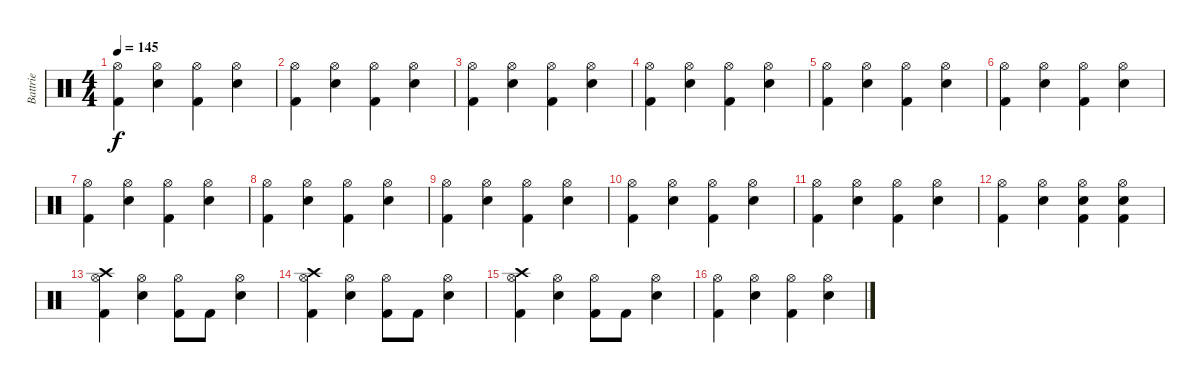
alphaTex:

\track ("Battrie" "Battrie") {instrument percussion}
\staff {score}
\articulation defaults
\ts (4 4)
\tempo 145
\clef neutral
\ks c
("Hi-Hat (open)" "Kick (hit) 2").4{dy f} ("Hi-Hat (open)" "Snare (hit) 2").4 ("Hi-Hat (open)" "Kick (hit) 2").4 ("Snare (hit) 2" "Hi-Hat (open)").4 |
("Hi-Hat (open)" "Kick (hit) 2").4 ("Hi-Hat (open)" "Snare (hit) 2").4 ("Hi-Hat (open)" "Kick (hit) 2").4 ("Snare (hit) 2" "Hi-Hat (open)").4 |
("Hi-Hat (open)" "Kick (hit) 2").4 ("Hi-Hat (open)" "Snare (hit) 2").4 ("Hi-Hat (open)" "Kick (hit) 2").4 ("Snare (hit) 2" "Hi-Hat (open)").4 |
("Hi-Hat (open)" "Kick (hit) 2").4 ("Hi-Hat (open)" "Snare (hit) 2").4 ("Hi-Hat (open)" "Kick (hit) 2").4 ("Snare (hit) 2" "Hi-Hat (open)").4 |
("Hi-Hat (open)" "Kick (hit) 2").4 ("Hi-Hat (open)" "Snare (hit) 2").4 ("Hi-Hat (open)" "Kick (hit) 2").4 ("Snare (hit) 2" "Hi-Hat (open)").4 |
("Hi-Hat (open)" "Kick (hit) 2").4 ("Hi-Hat (open)" "Snare (hit) 2").4 ("Hi-Hat (open)" "Kick (hit) 2").4 ("Snare (hit) 2" "Hi-Hat (open)").4 |
("Hi-Hat (open)" "Kick (hit) 2").4 ("Hi-Hat (open)" "Snare (hit) 2").4 ("Hi-Hat (open)" "Kick (hit) 2").4 ("Snare (hit) 2" "Hi-Hat (open)").4 |
("Hi-Hat (open)" "Kick (hit) 2").4 ("Hi-Hat (open)" "Snare (hit) 2").4 ("Hi-Hat (open)" "Kick (hit) 2").4 ("Snare (hit) 2" "Hi-Hat (open)").4 |
("Hi-Hat (open)" "Kick (hit) 2").4 ("Hi-Hat (open)" "Snare (hit) 2").4 ("Hi-Hat (open)" "Kick (hit) 2").4 ("Snare (hit) 2" "Hi-Hat (open)").4 |
("Hi-Hat (open)" "Kick (hit) 2").4 ("Hi-Hat (open)" "Snare (hit) 2").4 ("Hi-Hat (open)" "Kick (hit) 2").4 ("Snare (hit) 2" "Hi-Hat (open)").4 |
("Hi-Hat (open)" "Kick (hit) 2").4 ("Hi-Hat (open)" "Snare (hit) 2").4 ("Hi-Hat (open)" "Kick (hit) 2").4 ("Snare (hit) 2" "Hi-Hat (open)").4 |
("Hi-Hat (open)" "Kick (hit) 2").4 ("Hi-Hat (open)" "Snare (hit) 2").4 ("Snare (hit) 2" "Kick (hit) 2" "Hi-Hat (open)").4{volume 16} ("Snare (hit) 2" "Kick (hit) 2" "Hi-Hat (open)").4{volume 16} |
("Hi-Hat (open)" "Kick (hit) 2" "Crash high (hit)").4 ("Hi-Hat (open)" "Snare (hit) 2").4 ("Hi-Hat (open)" "Kick (hit) 2").8 "Kick (hit) 2".8 ("Hi-Hat (open)" "Snare (hit) 2").4 |
("Hi-Hat (open)" "Kick (hit) 2" "Crash high (hit)").4 ("Hi-Hat (open)" "Snare (hit) 2").4 ("Hi-Hat (open)" "Kick (hit) 2").8 "Kick (hit) 2".8 ("Hi-Hat (open)" "Snare (hit) 2").4 |
("Hi-Hat (open)" "Kick (hit) 2" "Crash high (hit)").4 ("Hi-Hat (open)" "Snare (hit) 2").4 ("Hi-Hat (open)" "Kick (hit) 2").8 "Kick (hit) 2".8 ("Hi-Hat (open)" "Snare (hit) 2").4 |
("Hi-Hat (open)" "Kick (hit) 2").4 ("Hi-Hat (open)" "Snare (hit) 2").4 ("Hi-Hat (open)" "Kick (hit) 2").4 ("Snare (hit) 2" "Hi-Hat (open)").4
